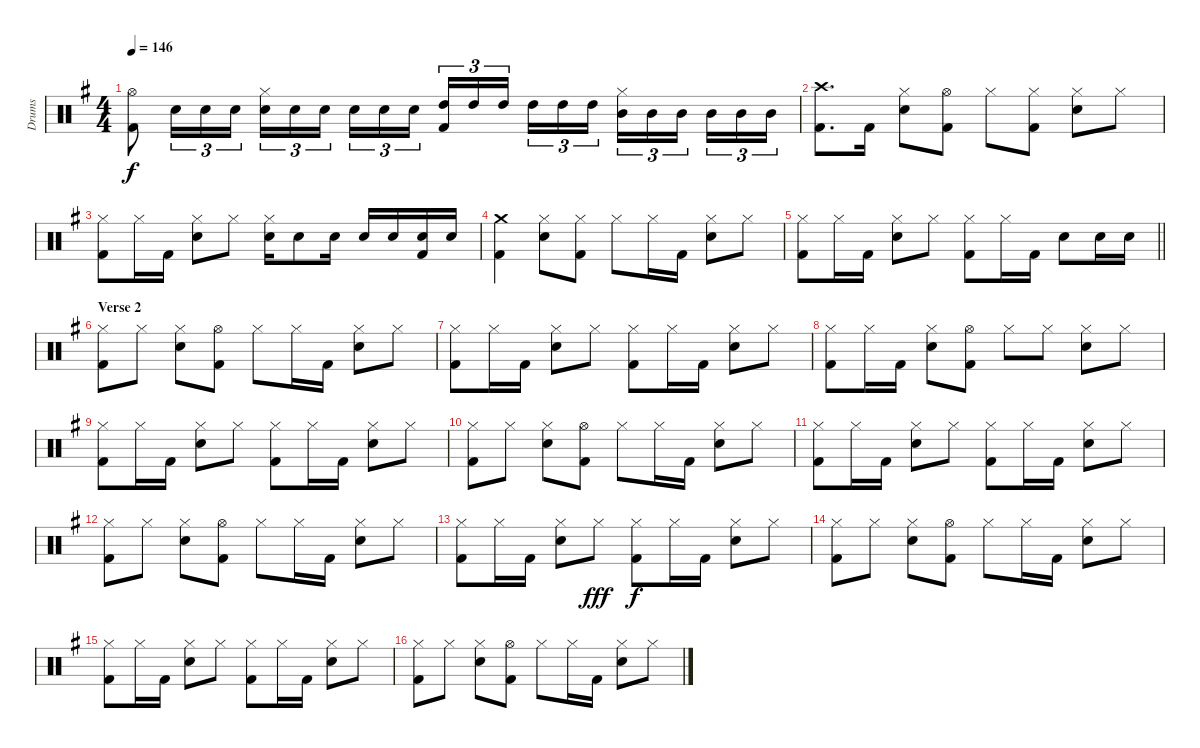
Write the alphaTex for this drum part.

\track ("Drums" "Drums") {instrument percussion}
\staff {score}
\articulation defaults
\ts (4 4)
\tempo 146
\clef neutral
\ks g
("Kick (hit) 2" "Hi-Hat (open)").8{dy f} "Snare (hit) 2".16{tu (3 2)} "Snare (hit) 2".16{tu (3 2)} "Snare (hit) 2".16{tu (3 2)} ("Snare (hit) 2" "Hi-Hat (closed)").16{tu (3 2)} "Snare (hit) 2".16{tu (3 2)} "Snare (hit) 2".16{tu (3 2)} "Snare (hit) 2".16{tu (3 2)} "Snare (hit) 2".16{tu (3 2)} "Snare (hit) 2".16{tu (3 2)} ("Kick (hit) 2" "High Tom (hit)").16{tu (3 2)} "High Tom (hit)".16{tu (3 2)} "High Tom (hit)".16{tu (3 2)} "High Tom (hit)".16{tu (3 2)} "High Tom (hit)".16{tu (3 2)} "High Tom (hit)".16{tu (3 2)} ("Hi-Hat (closed)" "Mid Tom (hit)").16{tu (3 2)} "Mid Tom (hit)".16{tu (3 2)} "Mid Tom (hit)".16{tu (3 2)} "Mid Tom (hit)".16{tu (3 2)} "Mid Tom (hit)".16{tu (3 2)} "Mid Tom (hit)".16{tu (3 2)} |
("Kick (hit) 2" "Crash high (hit)").8{d} "Kick (hit) 2".16 ("Snare (hit) 2" "Hi-Hat (closed)").8 ("Kick (hit) 2" "Hi-Hat (open)").8 "Hi-Hat (closed)".8 ("Kick (hit) 2" "Hi-Hat (closed)").8 ("Snare (hit) 2" "Hi-Hat (closed)").8 "Hi-Hat (closed)".8 |
("Kick (hit) 2" "Hi-Hat (closed)").8 "Hi-Hat (closed)".16 "Kick (hit) 2".16 ("Snare (hit) 2" "Hi-Hat (closed)").8 "Hi-Hat (closed)".8 ("Snare (hit) 2" "Hi-Hat (closed)").16 "Snare (hit) 2".8 "Snare (hit) 2".16 "Snare (hit) 2".16 "Snare (hit) 2".16 ("Kick (hit) 2" "Snare (hit) 2").16 "Snare (hit) 2".16 |
("Kick (hit) 2" "Crash medium (hit)").4 ("Snare (hit) 2" "Hi-Hat (closed)").8 ("Kick (hit) 2" "Hi-Hat (closed)").8 "Hi-Hat (closed)".8 "Hi-Hat (closed)".16 "Kick (hit) 2".16 ("Snare (hit) 2" "Hi-Hat (closed)").8 "Hi-Hat (closed)".8 |
\barLineRight lightlight
("Kick (hit) 2" "Hi-Hat (closed)").8 "Hi-Hat (closed)".16 "Kick (hit) 2".16 ("Snare (hit) 2" "Hi-Hat (closed)").8 "Hi-Hat (closed)".8 ("Kick (hit) 2" "Hi-Hat (closed)").8 "Hi-Hat (closed)".16 "Kick (hit) 2".16 "Snare (hit) 2".8 "Snare (hit) 2".16 "Snare (hit) 2".16 |
\section ("" "Verse 2")
("Kick (hit) 2" "Hi-Hat (closed)").8 "Hi-Hat (closed)".8 ("Snare (hit) 2" "Hi-Hat (closed)").8 ("Kick (hit) 2" "Hi-Hat (open)").8 "Hi-Hat (closed)".8 "Hi-Hat (closed)".16 "Kick (hit) 2".16 ("Snare (hit) 2" "Hi-Hat (closed)").8 "Hi-Hat (closed)".8 |
("Kick (hit) 2" "Hi-Hat (closed)").8 "Hi-Hat (closed)".16 "Kick (hit) 2".16 ("Snare (hit) 2" "Hi-Hat (closed)").8 "Hi-Hat (closed)".8 ("Kick (hit) 2" "Hi-Hat (closed)").8 "Hi-Hat (closed)".16 "Kick (hit) 2".16 ("Snare (hit) 2" "Hi-Hat (closed)").8 "Hi-Hat (closed)".8 |
("Kick (hit) 2" "Hi-Hat (closed)").8 "Hi-Hat (closed)".16 "Kick (hit) 2".16 ("Snare (hit) 2" "Hi-Hat (closed)").8 ("Kick (hit) 2" "Hi-Hat (open)").8 "Hi-Hat (closed)".8 "Hi-Hat (closed)".8 ("Snare (hit) 2" "Hi-Hat (closed)").8 "Hi-Hat (closed)".8 |
("Kick (hit) 2" "Hi-Hat (closed)").8 "Hi-Hat (closed)".16 "Kick (hit) 2".16 ("Snare (hit) 2" "Hi-Hat (closed)").8 "Hi-Hat (closed)".8 ("Kick (hit) 2" "Hi-Hat (closed)").8 "Hi-Hat (closed)".16 "Kick (hit) 2".16 ("Snare (hit) 2" "Hi-Hat (closed)").8 "Hi-Hat (closed)".8 |
("Kick (hit) 2" "Hi-Hat (closed)").8 "Hi-Hat (closed)".8 ("Snare (hit) 2" "Hi-Hat (closed)").8 ("Kick (hit) 2" "Hi-Hat (open)").8 "Hi-Hat (closed)".8 "Hi-Hat (closed)".16 "Kick (hit) 2".16 ("Snare (hit) 2" "Hi-Hat (closed)").8 "Hi-Hat (closed)".8 |
("Kick (hit) 2" "Hi-Hat (closed)").8 "Hi-Hat (closed)".16 "Kick (hit) 2".16 ("Snare (hit) 2" "Hi-Hat (closed)").8 "Hi-Hat (closed)".8 ("Kick (hit) 2" "Hi-Hat (closed)").8 "Hi-Hat (closed)".16 "Kick (hit) 2".16 ("Snare (hit) 2" "Hi-Hat (closed)").8 "Hi-Hat (closed)".8 |
("Kick (hit) 2" "Hi-Hat (closed)").8 "Hi-Hat (closed)".8 ("Snare (hit) 2" "Hi-Hat (closed)").8 ("Kick (hit) 2" "Hi-Hat (open)").8 "Hi-Hat (closed)".8 "Hi-Hat (closed)".16 "Kick (hit) 2".16 ("Snare (hit) 2" "Hi-Hat (closed)").8 "Hi-Hat (closed)".8 |
("Kick (hit) 2" "Hi-Hat (closed)").8 "Hi-Hat (closed)".16 "Kick (hit) 2".16 ("Snare (hit) 2" "Hi-Hat (closed)").8 "Hi-Hat (closed)".8{dy fff} ("Kick (hit) 2" "Hi-Hat (closed)").8{dy f} "Hi-Hat (closed)".16 "Kick (hit) 2".16 ("Snare (hit) 2" "Hi-Hat (closed)").8 "Hi-Hat (closed)".8 |
("Kick (hit) 2" "Hi-Hat (closed)").8 "Hi-Hat (closed)".8 ("Snare (hit) 2" "Hi-Hat (closed)").8 ("Kick (hit) 2" "Hi-Hat (open)").8 "Hi-Hat (closed)".8 "Hi-Hat (closed)".16 "Kick (hit) 2".16 ("Snare (hit) 2" "Hi-Hat (closed)").8 "Hi-Hat (closed)".8 |
("Kick (hit) 2" "Hi-Hat (closed)").8 "Hi-Hat (closed)".16 "Kick (hit) 2".16 ("Snare (hit) 2" "Hi-Hat (closed)").8 "Hi-Hat (closed)".8 ("Kick (hit) 2" "Hi-Hat (closed)").8 "Hi-Hat (closed)".16 "Kick (hit) 2".16 ("Snare (hit) 2" "Hi-Hat (closed)").8 "Hi-Hat (closed)".8 |
("Kick (hit) 2" "Hi-Hat (closed)").8 "Hi-Hat (closed)".8 ("Snare (hit) 2" "Hi-Hat (closed)").8 ("Kick (hit) 2" "Hi-Hat (open)").8 "Hi-Hat (closed)".8 "Hi-Hat (closed)".16 "Kick (hit) 2".16 ("Snare (hit) 2" "Hi-Hat (closed)").8 "Hi-Hat (closed)".8
